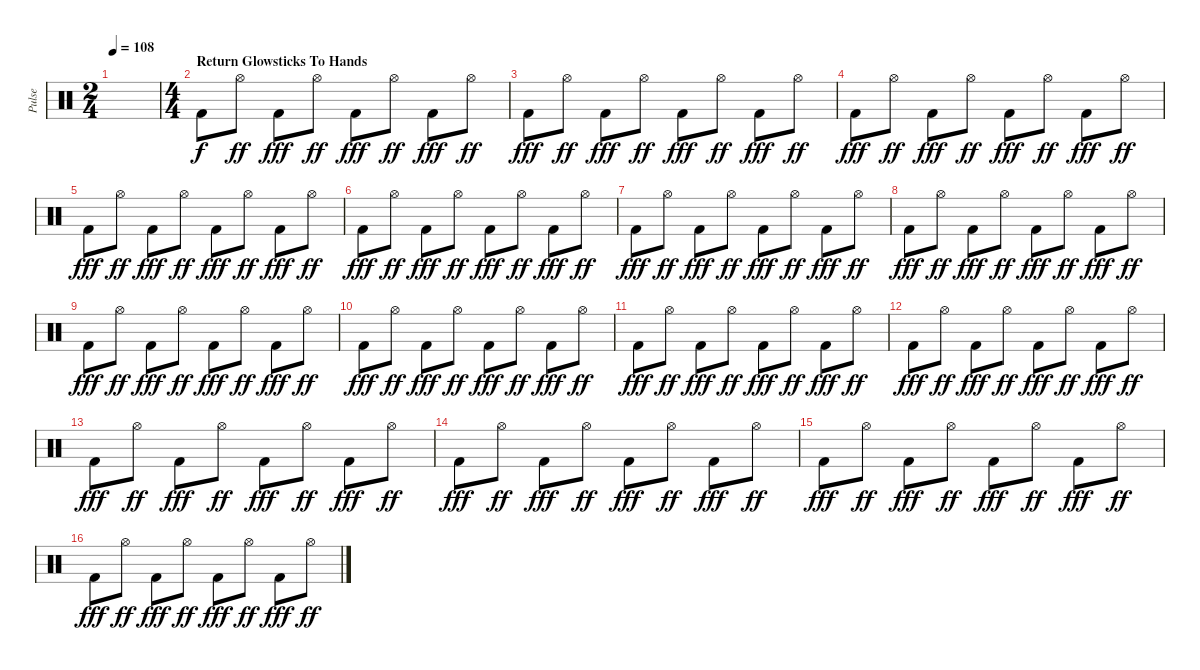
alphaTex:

\track ("Pulse" "Pulse") {instrument percussion}
\staff {score}
\articulation defaults
\ts (2 4)
\tempo 108
\clef neutral
\ks c
|
\ts (4 4)
\section ("" "Return Glowsticks To Hands")
"Kick (hit) 2".8 "Hi-Hat (open)".8{dy ff} "Kick (hit) 2".8{dy fff} "Hi-Hat (open)".8{dy ff} "Kick (hit) 2".8{dy fff} "Hi-Hat (open)".8{dy ff} "Kick (hit) 2".8{dy fff} "Hi-Hat (open)".8{dy ff} |
"Kick (hit) 2".8{dy fff} "Hi-Hat (open)".8{dy ff} "Kick (hit) 2".8{dy fff} "Hi-Hat (open)".8{dy ff} "Kick (hit) 2".8{dy fff} "Hi-Hat (open)".8{dy ff} "Kick (hit) 2".8{dy fff} "Hi-Hat (open)".8{dy ff} |
"Kick (hit) 2".8{dy fff} "Hi-Hat (open)".8{dy ff} "Kick (hit) 2".8{dy fff} "Hi-Hat (open)".8{dy ff} "Kick (hit) 2".8{dy fff} "Hi-Hat (open)".8{dy ff} "Kick (hit) 2".8{dy fff} "Hi-Hat (open)".8{dy ff} |
"Kick (hit) 2".8{dy fff} "Hi-Hat (open)".8{dy ff} "Kick (hit) 2".8{dy fff} "Hi-Hat (open)".8{dy ff} "Kick (hit) 2".8{dy fff} "Hi-Hat (open)".8{dy ff} "Kick (hit) 2".8{dy fff} "Hi-Hat (open)".8{dy ff} |
"Kick (hit) 2".8{dy fff} "Hi-Hat (open)".8{dy ff} "Kick (hit) 2".8{dy fff} "Hi-Hat (open)".8{dy ff} "Kick (hit) 2".8{dy fff} "Hi-Hat (open)".8{dy ff} "Kick (hit) 2".8{dy fff} "Hi-Hat (open)".8{dy ff} |
"Kick (hit) 2".8{dy fff} "Hi-Hat (open)".8{dy ff} "Kick (hit) 2".8{dy fff} "Hi-Hat (open)".8{dy ff} "Kick (hit) 2".8{dy fff} "Hi-Hat (open)".8{dy ff} "Kick (hit) 2".8{dy fff} "Hi-Hat (open)".8{dy ff} |
"Kick (hit) 2".8{dy fff} "Hi-Hat (open)".8{dy ff} "Kick (hit) 2".8{dy fff} "Hi-Hat (open)".8{dy ff} "Kick (hit) 2".8{dy fff} "Hi-Hat (open)".8{dy ff} "Kick (hit) 2".8{dy fff} "Hi-Hat (open)".8{dy ff} |
"Kick (hit) 2".8{dy fff} "Hi-Hat (open)".8{dy ff} "Kick (hit) 2".8{dy fff} "Hi-Hat (open)".8{dy ff} "Kick (hit) 2".8{dy fff} "Hi-Hat (open)".8{dy ff} "Kick (hit) 2".8{dy fff} "Hi-Hat (open)".8{dy ff} |
"Kick (hit) 2".8{dy fff} "Hi-Hat (open)".8{dy ff} "Kick (hit) 2".8{dy fff} "Hi-Hat (open)".8{dy ff} "Kick (hit) 2".8{dy fff} "Hi-Hat (open)".8{dy ff} "Kick (hit) 2".8{dy fff} "Hi-Hat (open)".8{dy ff} |
"Kick (hit) 2".8{dy fff} "Hi-Hat (open)".8{dy ff} "Kick (hit) 2".8{dy fff} "Hi-Hat (open)".8{dy ff} "Kick (hit) 2".8{dy fff} "Hi-Hat (open)".8{dy ff} "Kick (hit) 2".8{dy fff} "Hi-Hat (open)".8{dy ff} |
"Kick (hit) 2".8{dy fff} "Hi-Hat (open)".8{dy ff} "Kick (hit) 2".8{dy fff} "Hi-Hat (open)".8{dy ff} "Kick (hit) 2".8{dy fff} "Hi-Hat (open)".8{dy ff} "Kick (hit) 2".8{dy fff} "Hi-Hat (open)".8{dy ff} |
"Kick (hit) 2".8{dy fff} "Hi-Hat (open)".8{dy ff} "Kick (hit) 2".8{dy fff} "Hi-Hat (open)".8{dy ff} "Kick (hit) 2".8{dy fff} "Hi-Hat (open)".8{dy ff} "Kick (hit) 2".8{dy fff} "Hi-Hat (open)".8{dy ff} |
"Kick (hit) 2".8{dy fff} "Hi-Hat (open)".8{dy ff} "Kick (hit) 2".8{dy fff} "Hi-Hat (open)".8{dy ff} "Kick (hit) 2".8{dy fff} "Hi-Hat (open)".8{dy ff} "Kick (hit) 2".8{dy fff} "Hi-Hat (open)".8{dy ff} |
"Kick (hit) 2".8{dy fff} "Hi-Hat (open)".8{dy ff} "Kick (hit) 2".8{dy fff} "Hi-Hat (open)".8{dy ff} "Kick (hit) 2".8{dy fff} "Hi-Hat (open)".8{dy ff} "Kick (hit) 2".8{dy fff} "Hi-Hat (open)".8{dy ff} |
"Kick (hit) 2".8{dy fff} "Hi-Hat (open)".8{dy ff} "Kick (hit) 2".8{dy fff} "Hi-Hat (open)".8{dy ff} "Kick (hit) 2".8{dy fff} "Hi-Hat (open)".8{dy ff} "Kick (hit) 2".8{dy fff} "Hi-Hat (open)".8{dy ff}
